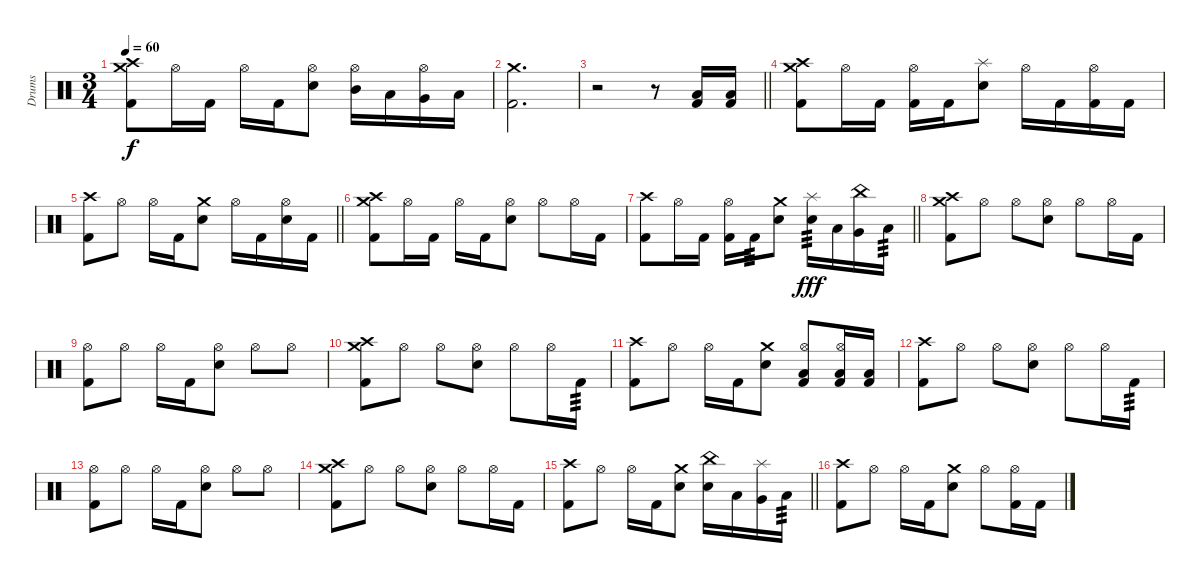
\track ("Drums" "Drums") {instrument percussion}
\staff {score}
\articulation defaults
\ts (3 4)
\tempo 60
\clef neutral
\ks c
("Kick (hit) 2" "Crash high (hit)" "Crash medium (hit)").8{dy f} "Hi-Hat (open)".16 "Kick (hit) 2".16 "Hi-Hat (open)".16 "Kick (hit) 2".16 ("Electric Snare (hit)" "Hi-Hat (open)").8 ("Mid Tom (hit)" "Hi-Hat (open)").16 "Low Tom (hit)".16 ("Very Low Tom (hit)" "Hi-Hat (open)").16 "Low Floor Tom (hit)".16 |
("Kick (hit) 2" "Crash medium (hit)").2{d} |
\barLineRight lightlight
r.2 r.8 ("Kick (hit) 2" "Low Floor Tom (hit)").16 ("Kick (hit) 2" "Low Floor Tom (hit)").16 |
("Kick (hit) 2" "Crash high (hit)" "Crash medium (hit)").8 "Hi-Hat (open)".16 "Kick (hit) 2".16 ("Kick (hit) 2" "Hi-Hat (open)").16 "Kick (hit) 2".16 ("Electric Snare (hit)" "Splash (hit)").8 "Hi-Hat (open)".16 "Kick (hit) 2".16 ("Kick (hit) 2" "Hi-Hat (open)").16 "Kick (hit) 2".16 |
\barLineRight lightlight
("Kick (hit) 2" "Crash high (hit)").8 "Hi-Hat (open)".8 "Hi-Hat (open)".16 "Kick (hit) 2".16 ("Electric Snare (hit)" "Crash medium (hit)").8 "Hi-Hat (open)".16 "Kick (hit) 2".16 ("Electric Snare (hit)" "Hi-Hat (open)").16 "Kick (hit) 2".16 |
("Kick (hit) 2" "Crash high (hit)" "Crash medium (hit)").8 "Hi-Hat (open)".16 "Kick (hit) 2".16 "Hi-Hat (open)".16 "Kick (hit) 2".16 ("Electric Snare (hit)" "Hi-Hat (open)").8 "Hi-Hat (open)".8 "Hi-Hat (open)".16 "Kick (hit) 2".16 |
\barLineRight lightlight
("Kick (hit) 2" "Crash high (hit)").8 "Hi-Hat (open)".16 "Kick (hit) 2".16 ("Kick (hit) 2" "Hi-Hat (open)").16 "Kick (hit) 2".16{tp 3} ("Electric Snare (hit)" "Crash medium (hit)").8 ("Electric Snare (hit)" "Splash (hit)").16{tp 3 dy fff} "Low Tom (hit)".16 ("Very Low Tom (hit)" "China (hit)").16 "Low Floor Tom (hit)".16{tp 3} |
("Kick (hit) 2" "Crash high (hit)" "Crash medium (hit)").8 "Hi-Hat (open)".8 "Hi-Hat (open)".8 ("Electric Snare (hit)" "Hi-Hat (open)").8 "Hi-Hat (open)".8 "Hi-Hat (open)".16 "Kick (hit) 2".16 |
("Kick (hit) 2" "Hi-Hat (open)").8 "Hi-Hat (open)".8 "Hi-Hat (open)".16 "Kick (hit) 2".16 ("Electric Snare (hit)" "Hi-Hat (open)").8 "Hi-Hat (open)".8 "Hi-Hat (open)".8 |
("Kick (hit) 2" "Crash high (hit)" "Crash medium (hit)").8 "Hi-Hat (open)".8 "Hi-Hat (open)".8 ("Electric Snare (hit)" "Hi-Hat (open)").8 "Hi-Hat (open)".8 "Hi-Hat (open)".16 "Kick (hit) 2".16{tp 3} |
("Kick (hit) 2" "Crash high (hit)").8 "Hi-Hat (open)".8 "Hi-Hat (open)".16 "Kick (hit) 2".16 ("Electric Snare (hit)" "Crash medium (hit)").8 ("Kick (hit) 2" "Low Floor Tom (hit)" "Hi-Hat (open)").8 ("Kick (hit) 2" "Low Floor Tom (hit)" "Hi-Hat (open)").16 ("Kick (hit) 2" "Low Floor Tom (hit)").16 |
("Kick (hit) 2" "Crash high (hit)").8 "Hi-Hat (open)".8 "Hi-Hat (open)".8 ("Electric Snare (hit)" "Hi-Hat (open)").8 "Hi-Hat (open)".8 "Hi-Hat (open)".16 "Kick (hit) 2".16{tp 3} |
("Kick (hit) 2" "Hi-Hat (open)").8 "Hi-Hat (open)".8 "Hi-Hat (open)".16 "Kick (hit) 2".16 ("Electric Snare (hit)" "Hi-Hat (open)").8 "Hi-Hat (open)".8 "Hi-Hat (open)".8 |
("Kick (hit) 2" "Crash high (hit)" "Crash medium (hit)").8 "Hi-Hat (open)".8 "Hi-Hat (open)".8 ("Electric Snare (hit)" "Hi-Hat (open)").8 "Hi-Hat (open)".8 "Hi-Hat (open)".16 "Kick (hit) 2".16 |
\barLineRight lightlight
("Kick (hit) 2" "Crash high (hit)").8 "Hi-Hat (open)".8 "Hi-Hat (open)".16 "Kick (hit) 2".16 ("Electric Snare (hit)" "Crash medium (hit)").8 ("Electric Snare (hit)" "China (hit)").16 "Low Tom (hit)".16 ("Very Low Tom (hit)" "Splash (hit)").16 "Low Floor Tom (hit)".16{tp 3} |
("Kick (hit) 2" "Crash high (hit)").8 "Hi-Hat (open)".8 "Hi-Hat (open)".16 "Kick (hit) 2".16 ("Electric Snare (hit)" "Crash medium (hit)").8 "Hi-Hat (open)".8 ("Kick (hit) 2" "Hi-Hat (open)").16 "Kick (hit) 2".16
